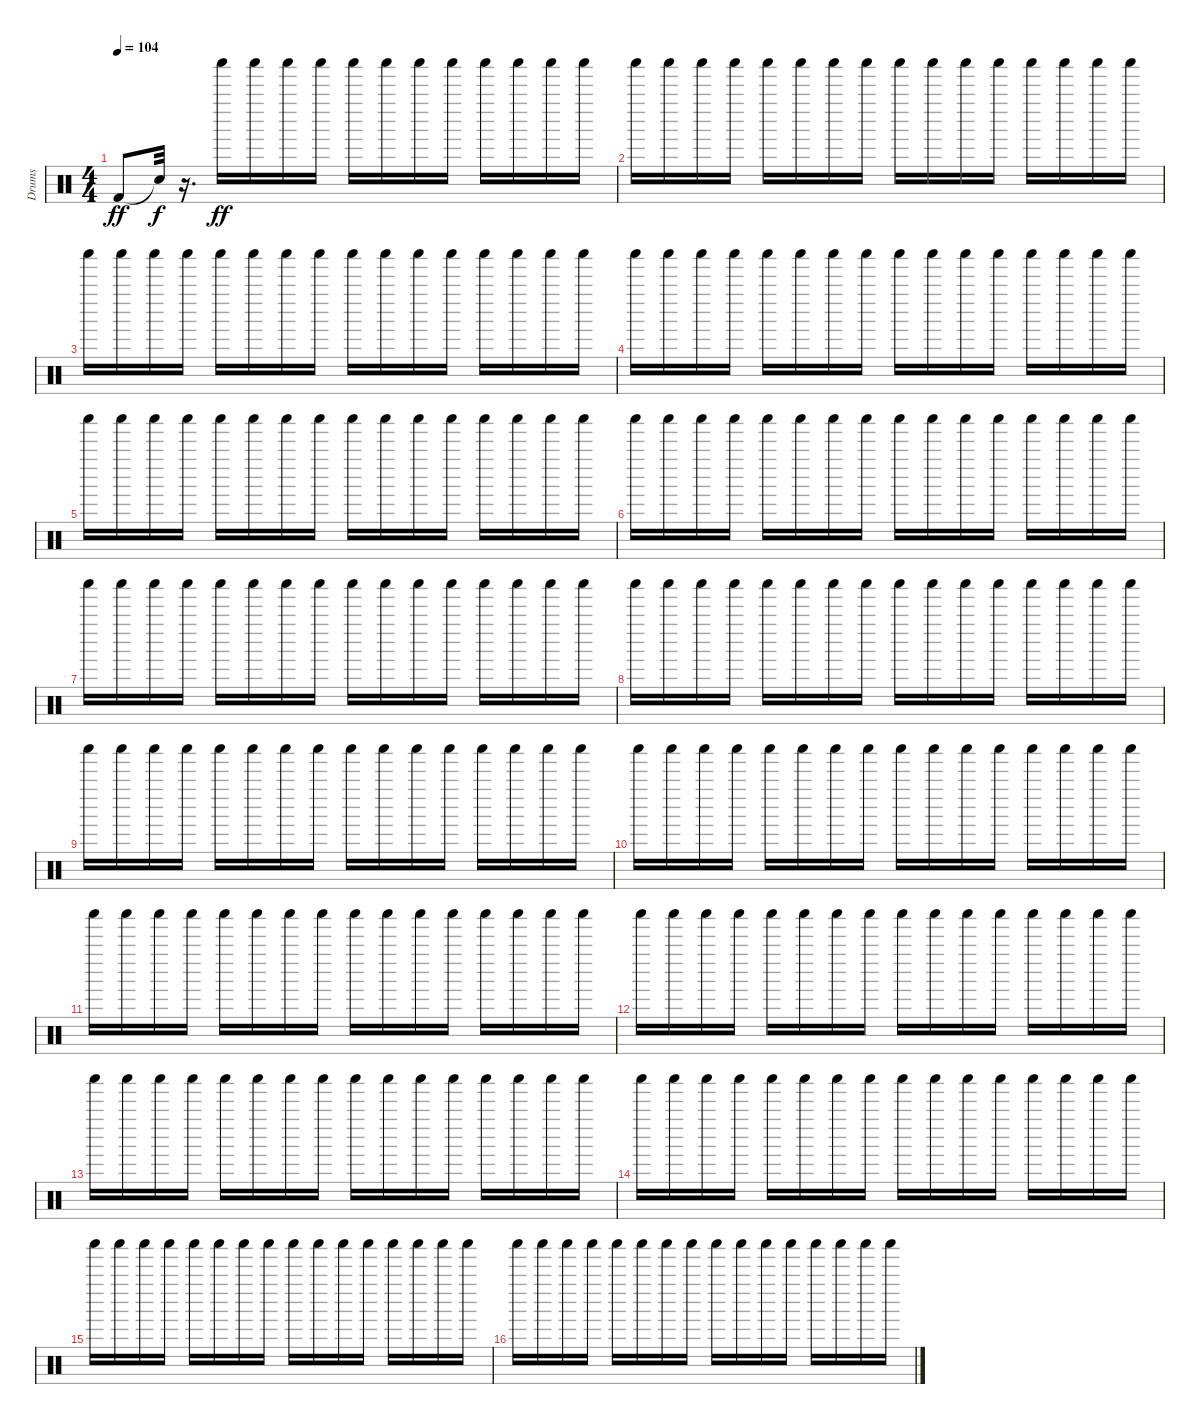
\track ("Drums" "Drums") {instrument percussion}
\staff {score}
\articulation defaults
\ts (4 4)
\tempo 104
\clef neutral
\ks c "Kick (hit) 2".8{dy ff} "Snare (hit)"{t}.32{dy f}
r.16{d} "Shaker (hit)".16{dy ff volume 7} "Shaker (hit)".16 "Shaker (hit)".16 "Shaker (hit)".16 "Shaker (hit)".16 "Shaker (hit)".16 "Shaker (hit)".16 "Shaker (hit)".16 "Shaker (hit)".16 "Shaker (hit)".16 "Shaker (hit)".16 "Shaker (hit)".16 |
"Shaker (hit)".16 "Shaker (hit)".16 "Shaker (hit)".16 "Shaker (hit)".16 "Shaker (hit)".16 "Shaker (hit)".16 "Shaker (hit)".16 "Shaker (hit)".16 "Shaker (hit)".16 "Shaker (hit)".16 "Shaker (hit)".16 "Shaker (hit)".16 "Shaker (hit)".16 "Shaker (hit)".16 "Shaker (hit)".16 "Shaker (hit)".16 |
"Shaker (hit)".16 "Shaker (hit)".16 "Shaker (hit)".16 "Shaker (hit)".16 "Shaker (hit)".16 "Shaker (hit)".16 "Shaker (hit)".16 "Shaker (hit)".16 "Shaker (hit)".16 "Shaker (hit)".16 "Shaker (hit)".16 "Shaker (hit)".16 "Shaker (hit)".16 "Shaker (hit)".16 "Shaker (hit)".16 "Shaker (hit)".16 |
"Shaker (hit)".16 "Shaker (hit)".16 "Shaker (hit)".16 "Shaker (hit)".16 "Shaker (hit)".16 "Shaker (hit)".16 "Shaker (hit)".16 "Shaker (hit)".16 "Shaker (hit)".16 "Shaker (hit)".16 "Shaker (hit)".16 "Shaker (hit)".16 "Shaker (hit)".16 "Shaker (hit)".16 "Shaker (hit)".16 "Shaker (hit)".16 |
"Shaker (hit)".16 "Shaker (hit)".16 "Shaker (hit)".16 "Shaker (hit)".16 "Shaker (hit)".16 "Shaker (hit)".16 "Shaker (hit)".16 "Shaker (hit)".16 "Shaker (hit)".16 "Shaker (hit)".16 "Shaker (hit)".16 "Shaker (hit)".16 "Shaker (hit)".16 "Shaker (hit)".16 "Shaker (hit)".16 "Shaker (hit)".16 |
"Shaker (hit)".16 "Shaker (hit)".16 "Shaker (hit)".16 "Shaker (hit)".16 "Shaker (hit)".16 "Shaker (hit)".16 "Shaker (hit)".16 "Shaker (hit)".16 "Shaker (hit)".16 "Shaker (hit)".16 "Shaker (hit)".16 "Shaker (hit)".16 "Shaker (hit)".16 "Shaker (hit)".16 "Shaker (hit)".16 "Shaker (hit)".16 |
"Shaker (hit)".16 "Shaker (hit)".16 "Shaker (hit)".16 "Shaker (hit)".16 "Shaker (hit)".16 "Shaker (hit)".16 "Shaker (hit)".16 "Shaker (hit)".16 "Shaker (hit)".16 "Shaker (hit)".16 "Shaker (hit)".16 "Shaker (hit)".16 "Shaker (hit)".16 "Shaker (hit)".16 "Shaker (hit)".16 "Shaker (hit)".16 |
"Shaker (hit)".16 "Shaker (hit)".16 "Shaker (hit)".16 "Shaker (hit)".16 "Shaker (hit)".16 "Shaker (hit)".16 "Shaker (hit)".16 "Shaker (hit)".16 "Shaker (hit)".16 "Shaker (hit)".16 "Shaker (hit)".16 "Shaker (hit)".16 "Shaker (hit)".16 "Shaker (hit)".16 "Shaker (hit)".16 "Shaker (hit)".16 |
"Shaker (hit)".16 "Shaker (hit)".16 "Shaker (hit)".16 "Shaker (hit)".16 "Shaker (hit)".16 "Shaker (hit)".16 "Shaker (hit)".16 "Shaker (hit)".16 "Shaker (hit)".16 "Shaker (hit)".16 "Shaker (hit)".16 "Shaker (hit)".16 "Shaker (hit)".16 "Shaker (hit)".16 "Shaker (hit)".16 "Shaker (hit)".16 |
"Shaker (hit)".16 "Shaker (hit)".16 "Shaker (hit)".16 "Shaker (hit)".16 "Shaker (hit)".16 "Shaker (hit)".16 "Shaker (hit)".16 "Shaker (hit)".16 "Shaker (hit)".16 "Shaker (hit)".16 "Shaker (hit)".16 "Shaker (hit)".16 "Shaker (hit)".16 "Shaker (hit)".16 "Shaker (hit)".16 "Shaker (hit)".16 |
"Shaker (hit)".16 "Shaker (hit)".16 "Shaker (hit)".16 "Shaker (hit)".16 "Shaker (hit)".16 "Shaker (hit)".16 "Shaker (hit)".16 "Shaker (hit)".16 "Shaker (hit)".16 "Shaker (hit)".16 "Shaker (hit)".16 "Shaker (hit)".16 "Shaker (hit)".16 "Shaker (hit)".16 "Shaker (hit)".16 "Shaker (hit)".16 |
"Shaker (hit)".16 "Shaker (hit)".16 "Shaker (hit)".16 "Shaker (hit)".16 "Shaker (hit)".16 "Shaker (hit)".16 "Shaker (hit)".16 "Shaker (hit)".16 "Shaker (hit)".16 "Shaker (hit)".16 "Shaker (hit)".16 "Shaker (hit)".16 "Shaker (hit)".16 "Shaker (hit)".16 "Shaker (hit)".16 "Shaker (hit)".16 |
"Shaker (hit)".16 "Shaker (hit)".16 "Shaker (hit)".16 "Shaker (hit)".16 "Shaker (hit)".16 "Shaker (hit)".16 "Shaker (hit)".16 "Shaker (hit)".16 "Shaker (hit)".16 "Shaker (hit)".16 "Shaker (hit)".16 "Shaker (hit)".16 "Shaker (hit)".16 "Shaker (hit)".16 "Shaker (hit)".16 "Shaker (hit)".16 |
"Shaker (hit)".16 "Shaker (hit)".16 "Shaker (hit)".16 "Shaker (hit)".16 "Shaker (hit)".16 "Shaker (hit)".16 "Shaker (hit)".16 "Shaker (hit)".16 "Shaker (hit)".16 "Shaker (hit)".16 "Shaker (hit)".16 "Shaker (hit)".16 "Shaker (hit)".16 "Shaker (hit)".16 "Shaker (hit)".16 "Shaker (hit)".16 |
"Shaker (hit)".16 "Shaker (hit)".16 "Shaker (hit)".16 "Shaker (hit)".16 "Shaker (hit)".16 "Shaker (hit)".16 "Shaker (hit)".16 "Shaker (hit)".16 "Shaker (hit)".16 "Shaker (hit)".16 "Shaker (hit)".16 "Shaker (hit)".16 "Shaker (hit)".16 "Shaker (hit)".16 "Shaker (hit)".16 "Shaker (hit)".16 |
"Shaker (hit)".16 "Shaker (hit)".16 "Shaker (hit)".16 "Shaker (hit)".16 "Shaker (hit)".16 "Shaker (hit)".16 "Shaker (hit)".16 "Shaker (hit)".16 "Shaker (hit)".16 "Shaker (hit)".16 "Shaker (hit)".16 "Shaker (hit)".16 "Shaker (hit)".16 "Shaker (hit)".16 "Shaker (hit)".16 "Shaker (hit)".16
